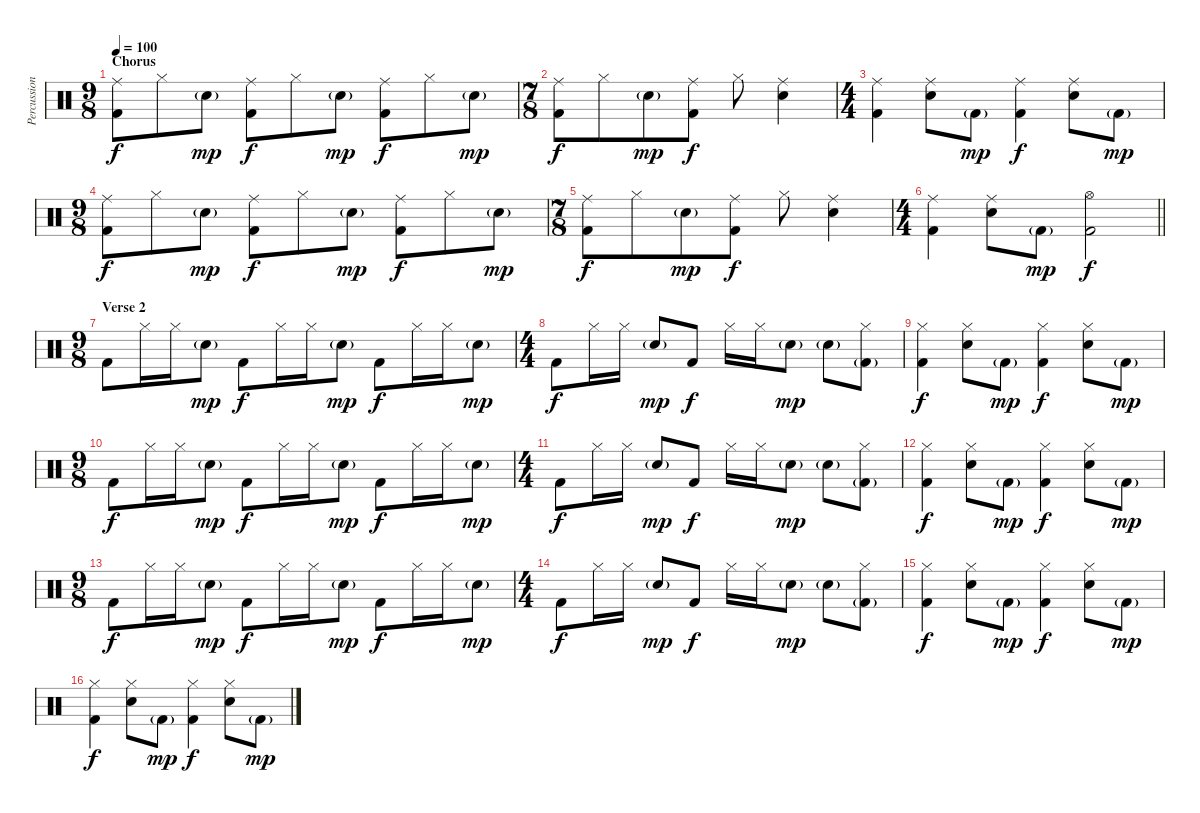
\track ("Percussion" "Percussion") {instrument percussion}
\staff {score}
\articulation defaults
\ts (9 8)
\section ("" "Chorus")
\tempo 100
\clef neutral
\ks c
("Ride (middle)" "Kick (hit) 2").8{dy f} "Hi-Hat (closed)".8 "Snare (hit) 2"{g}.8{dy mp} ("Ride (middle)" "Kick (hit) 2").8{dy f} "Hi-Hat (closed)".8 "Snare (hit) 2"{g}.8{dy mp} ("Ride (middle)" "Kick (hit) 2").8{dy f} "Hi-Hat (closed)".8 "Snare (hit) 2"{g}.8{dy mp} |
\ts (7 8)
("Ride (middle)" "Kick (hit) 2").8{dy f} "Hi-Hat (closed)".8 "Snare (hit) 2"{g}.8{dy mp} ("Ride (middle)" "Kick (hit) 2").8{dy f} "Hi-Hat (closed)".8 ("Ride (middle)" "Snare (hit) 2").4 |
\ts (4 4)
("Ride (middle)" "Kick (hit) 2").4 ("Ride (middle)" "Snare (hit) 2").8 "Kick (hit) 2"{g}.8{dy mp} ("Ride (middle)" "Kick (hit) 2").4{dy f} ("Ride (middle)" "Snare (hit) 2").8 "Kick (hit) 2"{g}.8{dy mp} |
\ts (9 8)
("Ride (middle)" "Kick (hit) 2").8{dy f} "Hi-Hat (closed)".8 "Snare (hit) 2"{g}.8{dy mp} ("Ride (middle)" "Kick (hit) 2").8{dy f} "Hi-Hat (closed)".8 "Snare (hit) 2"{g}.8{dy mp} ("Ride (middle)" "Kick (hit) 2").8{dy f} "Hi-Hat (closed)".8 "Snare (hit) 2"{g}.8{dy mp} |
\ts (7 8)
("Ride (middle)" "Kick (hit) 2").8{dy f} "Hi-Hat (closed)".8 "Snare (hit) 2"{g}.8{dy mp} ("Ride (middle)" "Kick (hit) 2").8{dy f} "Hi-Hat (closed)".8 ("Ride (middle)" "Snare (hit) 2").4 |
\ts (4 4)
\barLineRight lightlight
("Ride (middle)" "Kick (hit) 2").4 ("Ride (middle)" "Snare (hit) 2").8 "Kick (hit) 2"{g}.8{dy mp} ("Hi-Hat (open)" "Kick (hit) 2").2{dy f} |
\ts (9 8)
\section ("" "Verse 2")
"Kick (hit) 2".8 "Hi-Hat (closed)".16 "Hi-Hat (closed)".16 "Snare (hit) 2"{g}.8{dy mp} "Kick (hit) 2".8{dy f} "Hi-Hat (closed)".16 "Hi-Hat (closed)".16 "Snare (hit) 2"{g}.8{dy mp} "Kick (hit) 2".8{dy f} "Hi-Hat (closed)".16 "Hi-Hat (closed)".16 "Snare (hit) 2"{g}.8{dy mp} |
\ts (4 4)
"Kick (hit) 2".8{dy f} "Hi-Hat (closed)".16 "Hi-Hat (closed)".16 "Snare (hit) 2"{g}.8{dy mp} "Kick (hit) 2".8{dy f} "Hi-Hat (closed)".16 "Hi-Hat (closed)".16 "Snare (hit) 2"{g}.8{dy mp} "Snare (hit) 2"{g}.8 ("Hi-Hat (closed)" "Kick (hit) 2"{g}).8 |
("Hi-Hat (closed)" "Kick (hit) 2").4{dy f} ("Hi-Hat (closed)" "Snare (hit) 2").8 "Kick (hit) 2"{g}.8{dy mp} ("Hi-Hat (closed)" "Kick (hit) 2").4{dy f} ("Hi-Hat (closed)" "Snare (hit) 2").8 "Kick (hit) 2"{g}.8{dy mp} |
\ts (9 8)
"Kick (hit) 2".8{dy f} "Hi-Hat (closed)".16 "Hi-Hat (closed)".16 "Snare (hit) 2"{g}.8{dy mp} "Kick (hit) 2".8{dy f} "Hi-Hat (closed)".16 "Hi-Hat (closed)".16 "Snare (hit) 2"{g}.8{dy mp} "Kick (hit) 2".8{dy f} "Hi-Hat (closed)".16 "Hi-Hat (closed)".16 "Snare (hit) 2"{g}.8{dy mp} |
\ts (4 4)
"Kick (hit) 2".8{dy f} "Hi-Hat (closed)".16 "Hi-Hat (closed)".16 "Snare (hit) 2"{g}.8{dy mp} "Kick (hit) 2".8{dy f} "Hi-Hat (closed)".16 "Hi-Hat (closed)".16 "Snare (hit) 2"{g}.8{dy mp} "Snare (hit) 2"{g}.8 ("Hi-Hat (closed)" "Kick (hit) 2"{g}).8 |
("Hi-Hat (closed)" "Kick (hit) 2").4{dy f} ("Hi-Hat (closed)" "Snare (hit) 2").8 "Kick (hit) 2"{g}.8{dy mp} ("Hi-Hat (closed)" "Kick (hit) 2").4{dy f} ("Hi-Hat (closed)" "Snare (hit) 2").8 "Kick (hit) 2"{g}.8{dy mp} |
\ts (9 8)
"Kick (hit) 2".8{dy f} "Hi-Hat (closed)".16 "Hi-Hat (closed)".16 "Snare (hit) 2"{g}.8{dy mp} "Kick (hit) 2".8{dy f} "Hi-Hat (closed)".16 "Hi-Hat (closed)".16 "Snare (hit) 2"{g}.8{dy mp} "Kick (hit) 2".8{dy f} "Hi-Hat (closed)".16 "Hi-Hat (closed)".16 "Snare (hit) 2"{g}.8{dy mp} |
\ts (4 4)
"Kick (hit) 2".8{dy f} "Hi-Hat (closed)".16 "Hi-Hat (closed)".16 "Snare (hit) 2"{g}.8{dy mp} "Kick (hit) 2".8{dy f} "Hi-Hat (closed)".16 "Hi-Hat (closed)".16 "Snare (hit) 2"{g}.8{dy mp} "Snare (hit) 2"{g}.8 ("Hi-Hat (closed)" "Kick (hit) 2"{g}).8 |
("Hi-Hat (closed)" "Kick (hit) 2").4{dy f} ("Hi-Hat (closed)" "Snare (hit) 2").8 "Kick (hit) 2"{g}.8{dy mp} ("Hi-Hat (closed)" "Kick (hit) 2").4{dy f} ("Hi-Hat (closed)" "Snare (hit) 2").8 "Kick (hit) 2"{g}.8{dy mp} |
("Hi-Hat (closed)" "Kick (hit) 2").4{dy f} ("Hi-Hat (closed)" "Snare (hit) 2").8 "Kick (hit) 2"{g}.8{dy mp} ("Hi-Hat (closed)" "Kick (hit) 2").4{dy f} ("Hi-Hat (closed)" "Snare (hit) 2").8 "Kick (hit) 2"{g}.8{dy mp}
